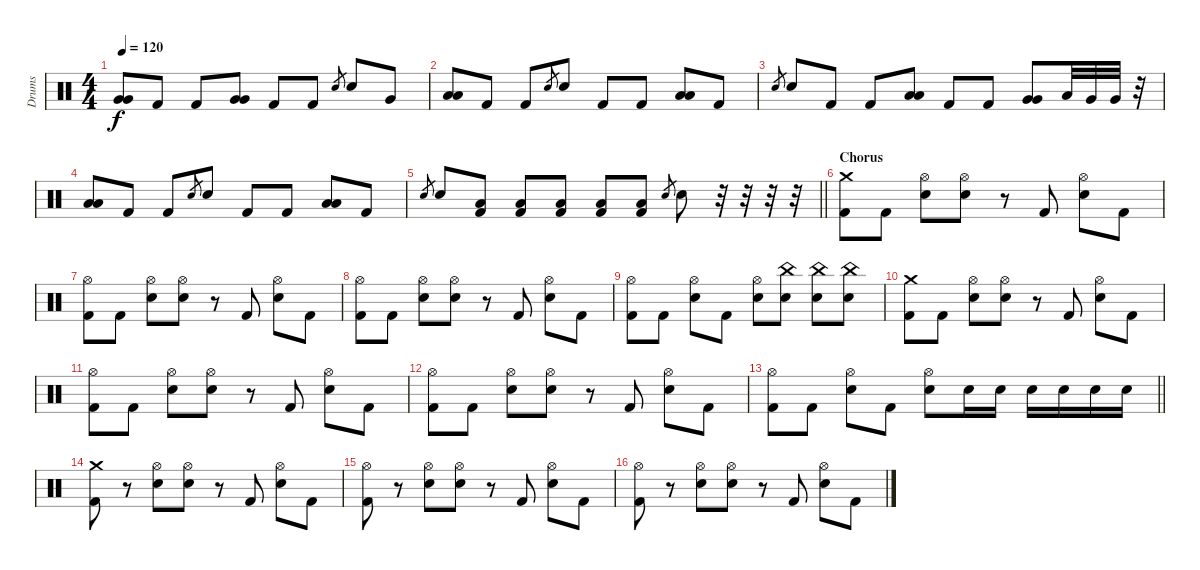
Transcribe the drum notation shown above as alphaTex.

\track ("Drums" "Drums") {instrument percussion}
\staff {score}
\articulation defaults
\ts (4 4)
\tempo 120
\clef neutral
\ks c
("Very Low Tom (hit)" "Very Low Tom (hit)").8{dy f} "Kick (hit) 2".8 "Kick (hit) 2".8 ("Very Low Tom (hit)" "Very Low Tom (hit)").8 "Kick (hit) 2".8 "Kick (hit) 2".8 "Electric Snare (hit)".8{gr} "Electric Snare (hit)".8 "Very Low Tom (hit)".8 |
("Low Tom (hit)" "Low Tom (hit)").8 "Kick (hit) 2".8 "Kick (hit) 2".8 "Electric Snare (hit)".8{gr} "Electric Snare (hit)".8 "Kick (hit) 2".8 "Kick (hit) 2".8 ("Low Tom (hit)" "Low Tom (hit)").8 "Kick (hit) 2".8 |
"Electric Snare (hit)".8{gr} "Electric Snare (hit)".8 "Kick (hit) 2".8 "Kick (hit) 2".8 ("Low Tom (hit)" "Low Tom (hit)").8 "Kick (hit) 2".8 "Kick (hit) 2".8 ("Very Low Tom (hit)" "Very Low Tom (hit)").8 "Low Tom (hit)".32 "Very Low Tom (hit)".32 "Very Low Tom (hit)".32 r.32 |
("Low Tom (hit)" "Low Tom (hit)").8 "Kick (hit) 2".8 "Kick (hit) 2".8 "Electric Snare (hit)".8{gr} "Electric Snare (hit)".8 "Kick (hit) 2".8 "Kick (hit) 2".8 ("Low Tom (hit)" "Low Tom (hit)").8 "Kick (hit) 2".8 |
\barLineRight lightlight "Electric Snare (hit)".8{gr} "Electric Snare (hit)".8
("Low Floor Tom (hit)" "Kick (hit) 2").8 ("Low Floor Tom (hit)" "Kick (hit) 2").8 ("Low Floor Tom (hit)" "Kick (hit) 2").8 ("Low Floor Tom (hit)" "Kick (hit) 2").8 ("Low Floor Tom (hit)" "Kick (hit) 2").8 "Electric Snare (hit)".8{gr} "Electric Snare (hit)".8 r.32 r.32 r.32 r.32 |
\section ("" "Chorus")
("Crash medium (hit)" "Kick (hit) 2").8 "Kick (hit) 2".8 ("Hi-Hat (open)" "Electric Snare (hit)").8 ("Hi-Hat (open)" "Electric Snare (hit)").8 r.8 "Kick (hit) 2".8 ("Hi-Hat (open)" "Electric Snare (hit)").8 "Kick (hit) 2".8 |
("Hi-Hat (open)" "Kick (hit) 2").8 "Kick (hit) 2".8 ("Hi-Hat (open)" "Electric Snare (hit)").8 ("Hi-Hat (open)" "Electric Snare (hit)").8 r.8 "Kick (hit) 2".8 ("Hi-Hat (open)" "Electric Snare (hit)").8 "Kick (hit) 2".8 |
("Hi-Hat (open)" "Kick (hit) 2").8 "Kick (hit) 2".8 ("Hi-Hat (open)" "Electric Snare (hit)").8 ("Hi-Hat (open)" "Electric Snare (hit)").8 r.8 "Kick (hit) 2".8 ("Hi-Hat (open)" "Electric Snare (hit)").8 "Kick (hit) 2".8 |
("Hi-Hat (open)" "Kick (hit) 2").8 "Kick (hit) 2".8 ("Hi-Hat (open)" "Electric Snare (hit)").8 "Kick (hit) 2".8 ("Hi-Hat (open)" "Electric Snare (hit)").8 ("China (hit)" "Electric Snare (hit)").8 ("China (hit)" "Electric Snare (hit)").8 ("China (hit)" "Electric Snare (hit)").8 |
("Crash medium (hit)" "Kick (hit) 2").8 "Kick (hit) 2".8 ("Hi-Hat (open)" "Electric Snare (hit)").8 ("Hi-Hat (open)" "Electric Snare (hit)").8 r.8 "Kick (hit) 2".8 ("Hi-Hat (open)" "Electric Snare (hit)").8 "Kick (hit) 2".8 |
("Hi-Hat (open)" "Kick (hit) 2").8 "Kick (hit) 2".8 ("Hi-Hat (open)" "Electric Snare (hit)").8 ("Hi-Hat (open)" "Electric Snare (hit)").8 r.8 "Kick (hit) 2".8 ("Hi-Hat (open)" "Electric Snare (hit)").8 "Kick (hit) 2".8 |
("Hi-Hat (open)" "Kick (hit) 2").8 "Kick (hit) 2".8 ("Hi-Hat (open)" "Electric Snare (hit)").8 ("Hi-Hat (open)" "Electric Snare (hit)").8 r.8 "Kick (hit) 2".8 ("Hi-Hat (open)" "Electric Snare (hit)").8 "Kick (hit) 2".8 |
\barLineRight lightlight
("Hi-Hat (open)" "Kick (hit) 2").8 "Kick (hit) 2".8 ("Hi-Hat (open)" "Electric Snare (hit)").8 "Kick (hit) 2".8 ("Hi-Hat (open)" "Electric Snare (hit)").8 "Electric Snare (hit)".16 "Electric Snare (hit)".16 "Electric Snare (hit)".16 "Electric Snare (hit)".16 "Electric Snare (hit)".16 "Electric Snare (hit)".16 |
\section ("" "")
("Crash medium (hit)" "Kick (hit) 2").8 r.8 ("Hi-Hat (open)" "Electric Snare (hit)").8 ("Hi-Hat (open)" "Electric Snare (hit)").8 r.8 "Kick (hit) 2".8 ("Hi-Hat (open)" "Electric Snare (hit)").8 "Kick (hit) 2".8 |
("Hi-Hat (open)" "Kick (hit) 2").8 r.8 ("Hi-Hat (open)" "Electric Snare (hit)").8 ("Hi-Hat (open)" "Electric Snare (hit)").8 r.8 "Kick (hit) 2".8 ("Hi-Hat (open)" "Electric Snare (hit)").8 "Kick (hit) 2".8 |
("Hi-Hat (open)" "Kick (hit) 2").8 r.8 ("Hi-Hat (open)" "Electric Snare (hit)").8 ("Hi-Hat (open)" "Electric Snare (hit)").8 r.8 "Kick (hit) 2".8 ("Hi-Hat (open)" "Electric Snare (hit)").8 "Kick (hit) 2".8
